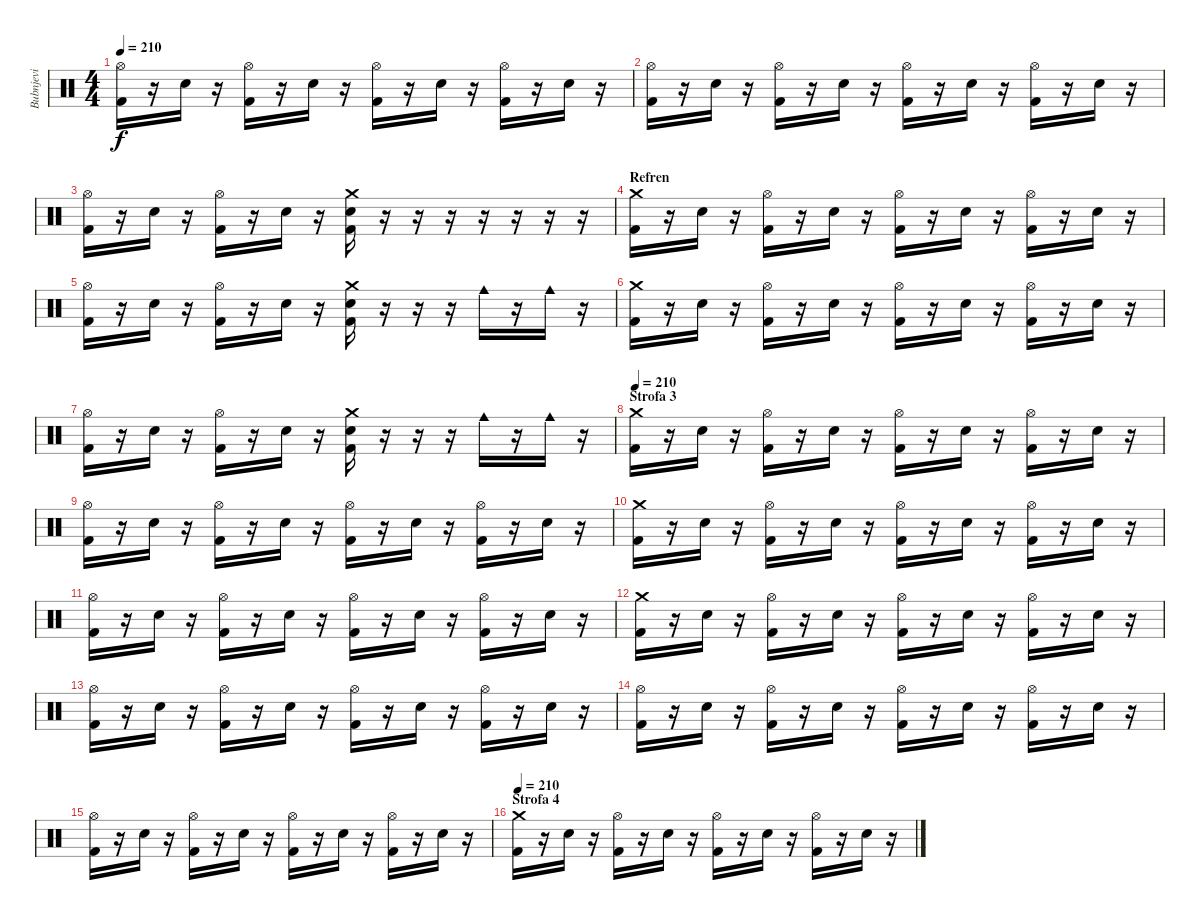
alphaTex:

\track ("Bubnjevi" "Bubnjevi") {instrument percussion}
\staff {score}
\articulation defaults
\ts (4 4)
\tempo 210
\clef neutral
\ks c
("Hi-Hat (open)" "Kick (hit) 2").16{dy f} r.16 "Snare (hit) 2".16 r.16 ("Hi-Hat (open)" "Kick (hit) 2").16 r.16 "Snare (hit) 2".16 r.16 ("Hi-Hat (open)" "Kick (hit) 2").16 r.16 "Snare (hit) 2".16 r.16 ("Hi-Hat (open)" "Kick (hit) 2").16 r.16 "Snare (hit) 2".16 r.16 |
("Hi-Hat (open)" "Kick (hit) 2").16 r.16 "Snare (hit) 2".16 r.16 ("Hi-Hat (open)" "Kick (hit) 2").16 r.16 "Snare (hit) 2".16 r.16 ("Hi-Hat (open)" "Kick (hit) 2").16 r.16 "Snare (hit) 2".16 r.16 ("Hi-Hat (open)" "Kick (hit) 2").16 r.16 "Snare (hit) 2".16 r.16 |
("Hi-Hat (open)" "Kick (hit) 2").16 r.16 "Snare (hit) 2".16 r.16 ("Hi-Hat (open)" "Kick (hit) 2").16 r.16 "Snare (hit) 2".16 r.16 ("Kick (hit) 2" "Snare (hit) 2" "Crash medium (hit)").16 r.16 r.16 r.16 r.16 r.16 r.16 r.16 |
\section ("" "Refren")
("Kick (hit) 2" "Crash medium (hit)").16 r.16 "Snare (hit) 2".16 r.16 ("Hi-Hat (open)" "Kick (hit) 2").16 r.16 "Snare (hit) 2".16 r.16 ("Hi-Hat (open)" "Kick (hit) 2").16 r.16 "Snare (hit) 2".16 r.16 ("Hi-Hat (open)" "Kick (hit) 2").16 r.16 "Snare (hit) 2".16 r.16 |
("Hi-Hat (open)" "Kick (hit) 2").16 r.16 "Snare (hit) 2".16 r.16 ("Hi-Hat (open)" "Kick (hit) 2").16 r.16 "Snare (hit) 2".16 r.16 ("Kick (hit) 2" "Snare (hit) 2" "Crash medium (hit)").16 r.16 r.16 r.16 "Cowbell medium (hit)".16 r.16 "Cowbell medium (hit)".16 r.16 |
("Kick (hit) 2" "Crash medium (hit)").16 r.16 "Snare (hit) 2".16 r.16 ("Hi-Hat (open)" "Kick (hit) 2").16 r.16 "Snare (hit) 2".16 r.16 ("Hi-Hat (open)" "Kick (hit) 2").16 r.16 "Snare (hit) 2".16 r.16 ("Hi-Hat (open)" "Kick (hit) 2").16 r.16 "Snare (hit) 2".16 r.16 |
("Hi-Hat (open)" "Kick (hit) 2").16 r.16 "Snare (hit) 2".16 r.16 ("Hi-Hat (open)" "Kick (hit) 2").16 r.16 "Snare (hit) 2".16 r.16 ("Kick (hit) 2" "Snare (hit) 2" "Crash medium (hit)").16 r.16 r.16 r.16 "Cowbell medium (hit)".16 r.16 "Cowbell medium (hit)".16 r.16 |
\section ("" "Strofa 3")
\tempo 210
("Kick (hit) 2" "Crash medium (hit)").16 r.16 "Snare (hit) 2".16 r.16 ("Hi-Hat (open)" "Kick (hit) 2").16 r.16 "Snare (hit) 2".16 r.16 ("Hi-Hat (open)" "Kick (hit) 2").16 r.16 "Snare (hit) 2".16 r.16 ("Hi-Hat (open)" "Kick (hit) 2").16 r.16 "Snare (hit) 2".16 r.16 |
("Hi-Hat (open)" "Kick (hit) 2").16 r.16 "Snare (hit) 2".16 r.16 ("Hi-Hat (open)" "Kick (hit) 2").16 r.16 "Snare (hit) 2".16 r.16 ("Hi-Hat (open)" "Kick (hit) 2").16 r.16 "Snare (hit) 2".16 r.16 ("Hi-Hat (open)" "Kick (hit) 2").16 r.16 "Snare (hit) 2".16 r.16 |
("Kick (hit) 2" "Crash medium (hit)").16 r.16 "Snare (hit) 2".16 r.16 ("Hi-Hat (open)" "Kick (hit) 2").16 r.16 "Snare (hit) 2".16 r.16 ("Hi-Hat (open)" "Kick (hit) 2").16 r.16 "Snare (hit) 2".16 r.16 ("Hi-Hat (open)" "Kick (hit) 2").16 r.16 "Snare (hit) 2".16 r.16 |
("Hi-Hat (open)" "Kick (hit) 2").16 r.16 "Snare (hit) 2".16 r.16 ("Hi-Hat (open)" "Kick (hit) 2").16 r.16 "Snare (hit) 2".16 r.16 ("Hi-Hat (open)" "Kick (hit) 2").16 r.16 "Snare (hit) 2".16 r.16 ("Hi-Hat (open)" "Kick (hit) 2").16 r.16 "Snare (hit) 2".16 r.16 |
("Kick (hit) 2" "Crash medium (hit)").16 r.16 "Snare (hit) 2".16 r.16 ("Hi-Hat (open)" "Kick (hit) 2").16 r.16 "Snare (hit) 2".16 r.16 ("Hi-Hat (open)" "Kick (hit) 2").16 r.16 "Snare (hit) 2".16 r.16 ("Hi-Hat (open)" "Kick (hit) 2").16 r.16 "Snare (hit) 2".16 r.16 |
("Hi-Hat (open)" "Kick (hit) 2").16 r.16 "Snare (hit) 2".16 r.16 ("Hi-Hat (open)" "Kick (hit) 2").16 r.16 "Snare (hit) 2".16 r.16 ("Hi-Hat (open)" "Kick (hit) 2").16 r.16 "Snare (hit) 2".16 r.16 ("Hi-Hat (open)" "Kick (hit) 2").16 r.16 "Snare (hit) 2".16 r.16 |
("Hi-Hat (open)" "Kick (hit) 2").16 r.16 "Snare (hit) 2".16 r.16 ("Hi-Hat (open)" "Kick (hit) 2").16 r.16 "Snare (hit) 2".16 r.16 ("Hi-Hat (open)" "Kick (hit) 2").16 r.16 "Snare (hit) 2".16 r.16 ("Hi-Hat (open)" "Kick (hit) 2").16 r.16 "Snare (hit) 2".16 r.16 |
("Hi-Hat (open)" "Kick (hit) 2").16 r.16 "Snare (hit) 2".16 r.16 ("Hi-Hat (open)" "Kick (hit) 2").16 r.16 "Snare (hit) 2".16 r.16 ("Hi-Hat (open)" "Kick (hit) 2").16 r.16 "Snare (hit) 2".16 r.16 ("Hi-Hat (open)" "Kick (hit) 2").16 r.16 "Snare (hit) 2".16 r.16 |
\section ("" "Strofa 4")
\tempo 210
("Kick (hit) 2" "Crash medium (hit)").16 r.16 "Snare (hit) 2".16 r.16 ("Hi-Hat (open)" "Kick (hit) 2").16 r.16 "Snare (hit) 2".16 r.16 ("Hi-Hat (open)" "Kick (hit) 2").16 r.16 "Snare (hit) 2".16 r.16 ("Hi-Hat (open)" "Kick (hit) 2").16 r.16 "Snare (hit) 2".16 r.16
